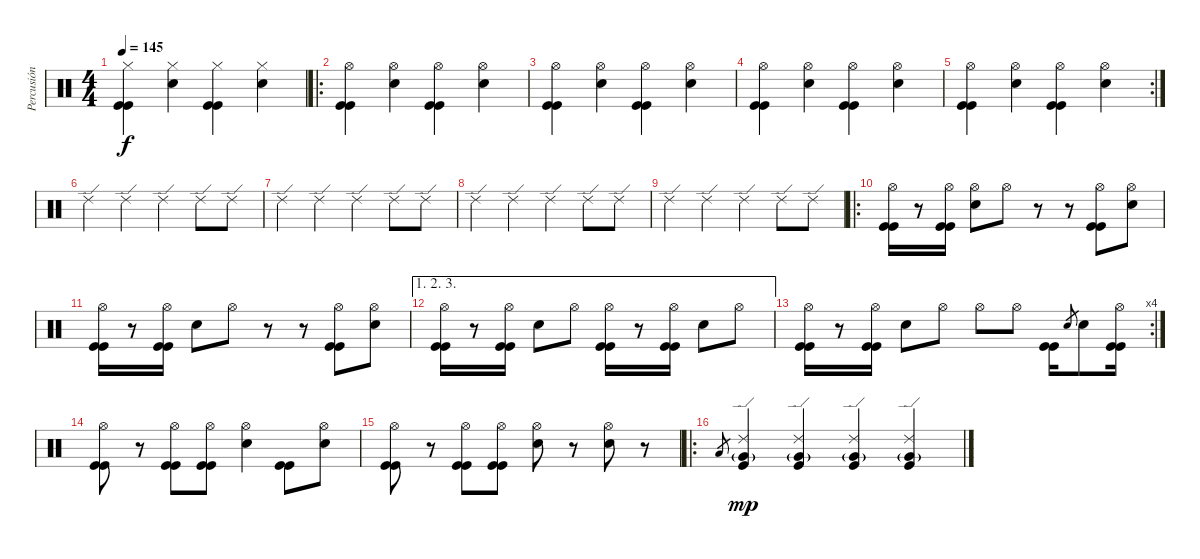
\track ("Percusión" "Percusión") {instrument percussion}
\staff {score}
\articulation defaults
\ts (4 4)
\tempo 145
\clef neutral
\ks c
("Hi-Hat (closed)" "Kick (hit)" "Kick (hit)").4{dy f} ("Hi-Hat (closed)" "Electric Snare (hit)").4 ("Hi-Hat (closed)" "Kick (hit)" "Kick (hit)").4 ("Hi-Hat (closed)" "Electric Snare (hit)").4 |
\ro
("Hi-Hat (open)" "Kick (hit)" "Kick (hit)").4 ("Hi-Hat (open)" "Electric Snare (hit)").4 ("Hi-Hat (open)" "Kick (hit)" "Kick (hit)").4 ("Hi-Hat (open)" "Electric Snare (hit)").4 |
("Hi-Hat (open)" "Kick (hit)" "Kick (hit)").4 ("Hi-Hat (open)" "Electric Snare (hit)").4 ("Hi-Hat (open)" "Kick (hit)" "Kick (hit)").4 ("Hi-Hat (open)" "Electric Snare (hit)").4 |
("Hi-Hat (open)" "Kick (hit)" "Kick (hit)").4 ("Hi-Hat (open)" "Electric Snare (hit)").4 ("Hi-Hat (open)" "Kick (hit)" "Kick (hit)").4 ("Hi-Hat (open)" "Electric Snare (hit)").4 |
\rc 2
("Hi-Hat (open)" "Kick (hit)" "Kick (hit)").4 ("Hi-Hat (open)" "Electric Snare (hit)").4 ("Hi-Hat (open)" "Kick (hit)" "Kick (hit)").4 ("Hi-Hat (open)" "Electric Snare (hit)").4 |
"Ride (edge) 2".4 "Ride (edge) 2".4 "Ride (edge) 2".4 "Ride (edge) 2".8 "Ride (edge) 2".8 |
"Ride (edge) 2".4 "Ride (edge) 2".4 "Ride (edge) 2".4 "Ride (edge) 2".8 "Ride (edge) 2".8 |
"Ride (edge) 2".4 "Ride (edge) 2".4 "Ride (edge) 2".4 "Ride (edge) 2".8 "Ride (edge) 2".8 |
"Ride (edge) 2".4 "Ride (edge) 2".4 "Ride (edge) 2".4 "Ride (edge) 2".8 "Ride (edge) 2".8 |
\ro
("Hi-Hat (open)" "Kick (hit)" "Kick (hit)").16 r.8 ("Hi-Hat (open)" "Kick (hit)" "Kick (hit)").16 ("Hi-Hat (open)" "Electric Snare (hit)").8 "Hi-Hat (open)".8 r.8 r.8 ("Hi-Hat (open)" "Kick (hit)" "Kick (hit)").8 ("Hi-Hat (open)" "Electric Snare (hit)").8 |
("Hi-Hat (open)" "Kick (hit)" "Kick (hit)").16 r.8 ("Hi-Hat (open)" "Kick (hit)" "Kick (hit)").16 "Electric Snare (hit)".8 "Hi-Hat (open)".8 r.8 r.8 ("Hi-Hat (open)" "Kick (hit)" "Kick (hit)").8 ("Hi-Hat (open)" "Electric Snare (hit)").8 |
\ae (1 2 3)
("Hi-Hat (open)" "Kick (hit)" "Kick (hit)").16 r.8 ("Hi-Hat (open)" "Kick (hit)" "Kick (hit)").16 "Electric Snare (hit)".8 "Hi-Hat (open)".8 ("Hi-Hat (open)" "Kick (hit)" "Kick (hit)").16 r.8 ("Hi-Hat (open)" "Kick (hit)" "Kick (hit)").16 "Electric Snare (hit)".8 "Hi-Hat (open)".8 |
\rc 4
("Hi-Hat (open)" "Kick (hit)" "Kick (hit)").16 r.8 ("Hi-Hat (open)" "Kick (hit)" "Kick (hit)").16 "Electric Snare (hit)".8 "Hi-Hat (open)".8 "Hi-Hat (open)".8 "Hi-Hat (open)".8 ("Kick (hit)" "Kick (hit)").16 "Electric Snare (hit)".8{gr} "Electric Snare (hit)".8 ("Hi-Hat (open)" "Kick (hit)" "Kick (hit)").16 |
("Hi-Hat (open)" "Kick (hit)" "Kick (hit)").8 r.8 ("Hi-Hat (open)" "Kick (hit)" "Kick (hit)").8 ("Hi-Hat (open)" "Kick (hit)" "Kick (hit)").8 ("Hi-Hat (open)" "Electric Snare (hit)").4 ("Kick (hit)" "Kick (hit)").8 ("Hi-Hat (open)" "Electric Snare (hit)").8 |
("Hi-Hat (open)" "Kick (hit)" "Kick (hit)").8 r.8 ("Hi-Hat (open)" "Kick (hit)" "Kick (hit)").8 ("Hi-Hat (open)" "Kick (hit)" "Kick (hit)").8 ("Hi-Hat (open)" "Electric Snare (hit)").8 r.8 ("Hi-Hat (open)" "Electric Snare (hit)").8 r.8 |
\ro "Low Floor Tom (hit)".8{gr}
("Ride (edge) 2" "Very Low Tom (hit)"{g} "Kick (hit)").4{dy mp} ("Ride (edge) 2" "Very Low Tom (hit)"{g} "Kick (hit)").4 ("Ride (edge) 2" "Very Low Tom (hit)"{g} "Kick (hit)").4 ("Ride (edge) 2" "Very Low Tom (hit)"{g} "Kick (hit)").4
